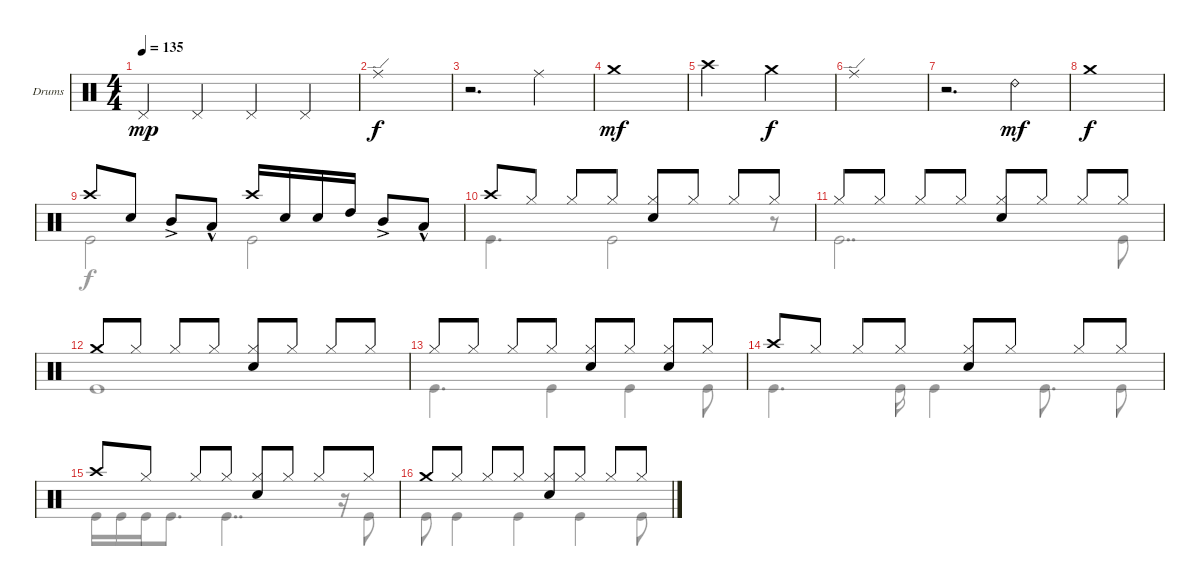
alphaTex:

\defaultSystemsLayout 4
\bracketExtendMode groupsimilarinstruments
\firstSystemTrackNameOrientation horizontal
\otherSystemsTrackNameOrientation horizontal
\track ("Drumkit" "Drums") {instrument percussion}
\staff {score}
\articulation defaults
\voice
\ts (4 4)
\tempo 135
\clef neutral
\ks c "Pedal Hi-Hat (hit)".4{dy mp} "Pedal Hi-Hat (hit)".4 "Pedal Hi-Hat (hit)".4 "Pedal Hi-Hat (hit)".4
|
"Ride (edge)".1{dy f} |
r.2{d} "Ride (middle)".4 |
"Crash medium (hit)".1{dy mf} |
"Crash high (hit)".2 "Crash medium (hit)".2{dy f} |
"Ride (edge)".1 |
r.2{d} "Ride (bell) 2".4{dy mf} |
"Crash medium (hit)".1{dy f} |
"Crash high (hit)".8 "Snare (hit) 2".8 "Mid Tom (hit)"{ac}.8 "Low Tom (hit)"{hac}.8 "Crash high (hit)".16 "Snare (hit) 2".16 "Snare (hit) 2".16 "High Tom (hit)".16 "Mid Tom (hit)"{ac}.8 "Low Tom (hit)"{hac}.8 |
"Crash high (hit)".8 "Hi-Hat (closed)".8 "Hi-Hat (closed)".8 "Hi-Hat (closed)".8 ("Snare (hit) 2" "Hi-Hat (closed)").8 "Hi-Hat (closed)".8 "Hi-Hat (closed)".8 "Hi-Hat (closed)".8 |
"Hi-Hat (closed)".8 "Hi-Hat (closed)".8 "Hi-Hat (closed)".8 "Hi-Hat (closed)".8 ("Snare (hit) 2" "Hi-Hat (closed)").8 "Hi-Hat (closed)".8 "Hi-Hat (closed)".8 "Hi-Hat (closed)".8 |
"Crash medium (hit)".8 "Hi-Hat (closed)".8 "Hi-Hat (closed)".8 "Hi-Hat (closed)".8 ("Snare (hit) 2" "Hi-Hat (closed)").8 "Hi-Hat (closed)".8 "Hi-Hat (closed)".8 "Hi-Hat (closed)".8 |
"Hi-Hat (closed)".8 "Hi-Hat (closed)".8 "Hi-Hat (closed)".8 "Hi-Hat (closed)".8 ("Snare (hit) 2" "Hi-Hat (closed)").8 "Hi-Hat (closed)".8 ("Hi-Hat (closed)" "Snare (hit) 2").8 "Hi-Hat (closed)".8 |
"Crash high (hit)".8 "Hi-Hat (closed)".8 "Hi-Hat (closed)".8 "Hi-Hat (closed)".8 ("Snare (hit) 2" "Hi-Hat (closed)").8 "Hi-Hat (closed)".8 "Hi-Hat (closed)".8 "Hi-Hat (closed)".8 |
"Crash high (hit)".8 "Hi-Hat (closed)".8 "Hi-Hat (closed)".8 "Hi-Hat (closed)".8 ("Snare (hit) 2" "Hi-Hat (closed)").8 "Hi-Hat (closed)".8 "Hi-Hat (closed)".8 "Hi-Hat (closed)".8 |
"Crash medium (hit)".8 "Hi-Hat (closed)".8 "Hi-Hat (closed)".8 "Hi-Hat (closed)".8 ("Snare (hit) 2" "Hi-Hat (closed)").8 "Hi-Hat (closed)".8 "Hi-Hat (closed)".8 "Hi-Hat (closed)".8
\voice
\clef neutral
\ottava regular
\simile none
\ks c
|
|
|
|
|
|
|
|
"Kick (hit)".2 "Kick (hit)".2 |
"Kick (hit)".4{d} "Kick (hit)".2 r.8 |
"Kick (hit)".2{dd} "Kick (hit)".8 |
"Kick (hit)".1 |
"Kick (hit)".4{d} "Kick (hit)".4 "Kick (hit)".4 "Kick (hit)".8 |
"Kick (hit)".4{d} "Kick (hit)".16 "Kick (hit)".4 "Kick (hit)".8{d} "Kick (hit)".8 |
"Kick (hit)".16 "Kick (hit)".16 "Kick (hit)".16 "Kick (hit)".8{d} "Kick (hit)".4{dd} r.16 "Kick (hit)".8 |
"Kick (hit)".8 "Kick (hit)".4 "Kick (hit)".4 "Kick (hit)".4 "Kick (hit)".8
